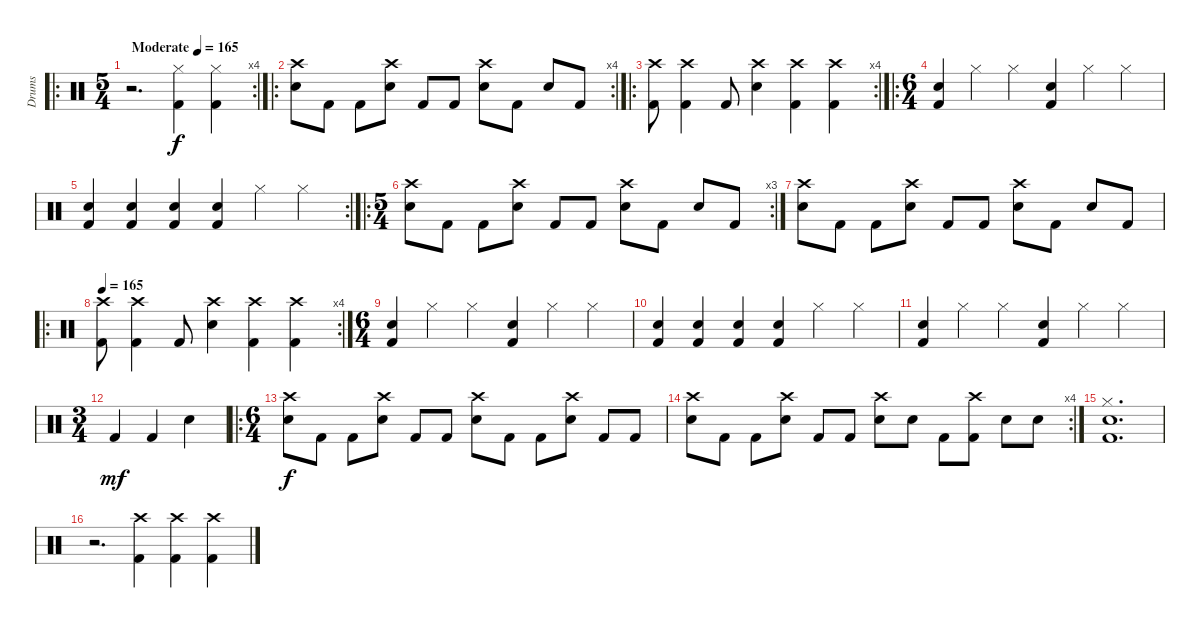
\track ("Drums" "Drums") {instrument percussion}
\staff {score}
\articulation defaults
\ro
\rc 4
\ts (5 4)
\tempo (165 "Moderate")
\clef neutral
\ks c
r.2{d dy f} ("Hi-Hat (closed)" "Kick (hit) 2").4 ("Hi-Hat (closed)" "Kick (hit) 2").4 |
\ro
\rc 4
("Crash high (hit)" "Electric Snare (hit)").8 "Kick (hit) 2".8 "Kick (hit) 2".8 ("Crash high (hit)" "Electric Snare (hit)").8 "Kick (hit) 2".8 "Kick (hit) 2".8 ("Crash high (hit)" "Snare (hit) 2").8 "Kick (hit) 2".8 "Snare (hit) 2".8 "Kick (hit) 2".8 |
\ro
\rc 4
("Crash high (hit)" "Kick (hit) 2").8 ("Crash high (hit)" "Kick (hit) 2").4 "Kick (hit) 2".8 ("Crash high (hit)" "Electric Snare (hit)").4 ("Crash high (hit)" "Kick (hit) 2").4 ("Crash high (hit)" "Kick (hit) 2").4 |
\ro
\ts (6 4)
("Electric Snare (hit)" "Kick (hit) 2").4 "Hi-Hat (closed)".4 "Hi-Hat (closed)".4 ("Electric Snare (hit)" "Kick (hit) 2").4 "Hi-Hat (closed)".4 "Hi-Hat (closed)".4 |
\rc 2
("Electric Snare (hit)" "Kick (hit) 2").4 ("Electric Snare (hit)" "Kick (hit) 2").4 ("Electric Snare (hit)" "Kick (hit) 2").4 ("Electric Snare (hit)" "Kick (hit) 2").4 "Hi-Hat (closed)".4 "Hi-Hat (closed)".4 |
\ro
\rc 3
\ts (5 4)
("Crash high (hit)" "Electric Snare (hit)").8 "Kick (hit) 2".8 "Kick (hit) 2".8 ("Crash high (hit)" "Electric Snare (hit)").8 "Kick (hit) 2".8 "Kick (hit) 2".8 ("Crash high (hit)" "Snare (hit) 2").8 "Kick (hit) 2".8 "Snare (hit) 2".8 "Kick (hit) 2".8 |
("Crash high (hit)" "Electric Snare (hit)").8 "Kick (hit) 2".8 "Kick (hit) 2".8 ("Crash high (hit)" "Electric Snare (hit)").8 "Kick (hit) 2".8 "Kick (hit) 2".8 ("Crash high (hit)" "Snare (hit) 2").8 "Kick (hit) 2".8 "Snare (hit) 2".8 "Kick (hit) 2".8 |
\ro
\rc 4
\tempo 165
("Crash high (hit)" "Kick (hit) 2").8 ("Crash high (hit)" "Kick (hit) 2").4 "Kick (hit) 2".8 ("Crash high (hit)" "Electric Snare (hit)").4 ("Crash high (hit)" "Kick (hit) 2").4 ("Crash high (hit)" "Kick (hit) 2").4 |
\ts (6 4)
("Electric Snare (hit)" "Kick (hit) 2").4 "Hi-Hat (closed)".4 "Hi-Hat (closed)".4 ("Electric Snare (hit)" "Kick (hit) 2").4 "Hi-Hat (closed)".4 "Hi-Hat (closed)".4 |
("Electric Snare (hit)" "Kick (hit) 2").4 ("Electric Snare (hit)" "Kick (hit) 2").4 ("Electric Snare (hit)" "Kick (hit) 2").4 ("Electric Snare (hit)" "Kick (hit) 2").4 "Hi-Hat (closed)".4 "Hi-Hat (closed)".4 |
("Electric Snare (hit)" "Kick (hit) 2").4 "Hi-Hat (closed)".4 "Hi-Hat (closed)".4 ("Electric Snare (hit)" "Kick (hit) 2").4 "Hi-Hat (closed)".4 "Hi-Hat (closed)".4 |
\ts (3 4)
"Kick (hit) 2".4{dy mf} "Kick (hit) 2".4 "Electric Snare (hit)".4 |
\ro
\ts (6 4)
("Crash high (hit)" "Electric Snare (hit)").8{dy f} "Kick (hit) 2".8 "Kick (hit) 2".8 ("Crash high (hit)" "Electric Snare (hit)").8 "Kick (hit) 2".8 "Kick (hit) 2".8 ("Crash high (hit)" "Electric Snare (hit)").8 "Kick (hit) 2".8 "Kick (hit) 2".8 ("Crash high (hit)" "Electric Snare (hit)").8 "Kick (hit) 2".8 "Kick (hit) 2".8 |
\rc 4
("Crash high (hit)" "Electric Snare (hit)").8 "Kick (hit) 2".8 "Kick (hit) 2".8 ("Crash high (hit)" "Electric Snare (hit)").8 "Kick (hit) 2".8 "Kick (hit) 2".8 ("Crash high (hit)" "Electric Snare (hit)").8 "Electric Snare (hit)".8 "Kick (hit) 2".8 ("Crash high (hit)" "Kick (hit) 2").8 "Snare (hit) 2".8 "Snare (hit) 2".8 |
("Hi-Hat (closed)" "Electric Snare (hit)" "Kick (hit) 2").1{d} |
r.2{d} ("Crash high (hit)" "Kick (hit) 2").4 ("Crash high (hit)" "Kick (hit) 2").4 ("Crash high (hit)" "Kick (hit) 2").4
